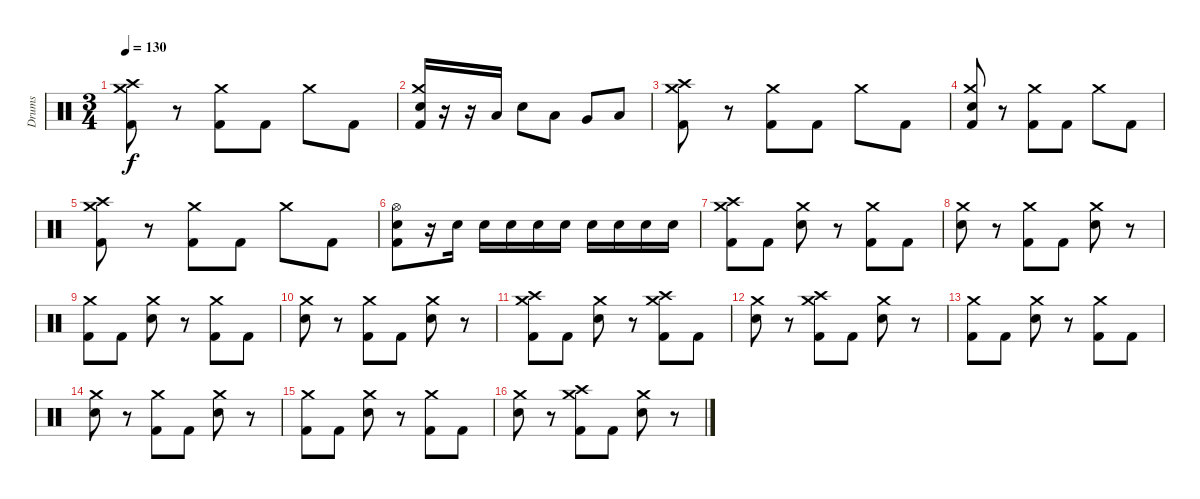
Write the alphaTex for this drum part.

\track ("Drums" "Drums") {instrument percussion}
\staff {score}
\articulation defaults
\ts (3 4)
\tempo 130
\clef neutral
\ks c
("Kick (hit) 2" "Crash high (hit)" "Crash medium (hit)").8{dy f} r.8 ("Kick (hit) 2" "Crash medium (hit)").8 "Kick (hit) 2".8 "Crash medium (hit)".8 "Kick (hit) 2".8 |
("Kick (hit) 2" "Snare (hit) 2" "Crash medium (hit)").16 r.16 r.16 "Low Tom (hit)".16 "Snare (hit) 2".8 "Low Tom (hit)".8 "Very Low Tom (hit)".8 "Low Floor Tom (hit)".8 |
("Kick (hit) 2" "Crash high (hit)" "Crash medium (hit)").8 r.8 ("Kick (hit) 2" "Crash medium (hit)").8 "Kick (hit) 2".8 "Crash medium (hit)".8 "Kick (hit) 2".8 |
("Kick (hit) 2" "Snare (hit) 2" "Crash medium (hit)").8 r.8 ("Kick (hit) 2" "Crash medium (hit)").8 "Kick (hit) 2".8 "Crash medium (hit)".8 "Kick (hit) 2".8 |
("Kick (hit) 2" "Crash high (hit)" "Crash medium (hit)").8 r.8 ("Kick (hit) 2" "Crash medium (hit)").8 "Kick (hit) 2".8 "Crash medium (hit)".8 "Kick (hit) 2".8 |
("Kick (hit) 2" "Snare (hit) 2" "Hi-Hat (open)").8 r.16 "Snare (hit) 2".16 "Snare (hit) 2".16 "Snare (hit) 2".16 "Snare (hit) 2".16 "Snare (hit) 2".16 "Snare (hit) 2".16 "Snare (hit) 2".16 "Snare (hit) 2".16 "Snare (hit) 2".16 |
("Kick (hit) 2" "Crash high (hit)" "Crash medium (hit)").8 "Kick (hit) 2".8 ("Snare (hit) 2" "Crash medium (hit)").8 r.8 ("Kick (hit) 2" "Crash medium (hit)").8 "Kick (hit) 2".8 |
("Snare (hit) 2" "Crash medium (hit)").8 r.8 ("Kick (hit) 2" "Crash medium (hit)").8 "Kick (hit) 2".8 ("Snare (hit) 2" "Crash medium (hit)").8 r.8 |
("Kick (hit) 2" "Crash medium (hit)").8 "Kick (hit) 2".8 ("Snare (hit) 2" "Crash medium (hit)").8 r.8 ("Kick (hit) 2" "Crash medium (hit)").8 "Kick (hit) 2".8 |
("Snare (hit) 2" "Crash medium (hit)").8 r.8 ("Kick (hit) 2" "Crash medium (hit)").8 "Kick (hit) 2".8 ("Snare (hit) 2" "Crash medium (hit)").8 r.8 |
("Kick (hit) 2" "Crash high (hit)" "Crash medium (hit)").8 "Kick (hit) 2".8 ("Snare (hit) 2" "Crash medium (hit)").8 r.8 ("Kick (hit) 2" "Crash high (hit)" "Crash medium (hit)").8 "Kick (hit) 2".8 |
("Snare (hit) 2" "Crash medium (hit)").8 r.8 ("Kick (hit) 2" "Crash high (hit)" "Crash medium (hit)").8 "Kick (hit) 2".8 ("Snare (hit) 2" "Crash medium (hit)").8 r.8 |
("Kick (hit) 2" "Crash medium (hit)").8 "Kick (hit) 2".8 ("Snare (hit) 2" "Crash medium (hit)").8 r.8 ("Kick (hit) 2" "Crash medium (hit)").8 "Kick (hit) 2".8 |
("Snare (hit) 2" "Crash medium (hit)").8 r.8 ("Kick (hit) 2" "Crash medium (hit)").8 "Kick (hit) 2".8 ("Snare (hit) 2" "Crash medium (hit)").8 r.8 |
("Kick (hit) 2" "Crash medium (hit)").8 "Kick (hit) 2".8 ("Snare (hit) 2" "Crash medium (hit)").8 r.8 ("Kick (hit) 2" "Crash medium (hit)").8 "Kick (hit) 2".8 |
("Snare (hit) 2" "Crash medium (hit)").8 r.8 ("Kick (hit) 2" "Crash high (hit)" "Crash medium (hit)").8 "Kick (hit) 2".8 ("Snare (hit) 2" "Crash medium (hit)").8 r.8
